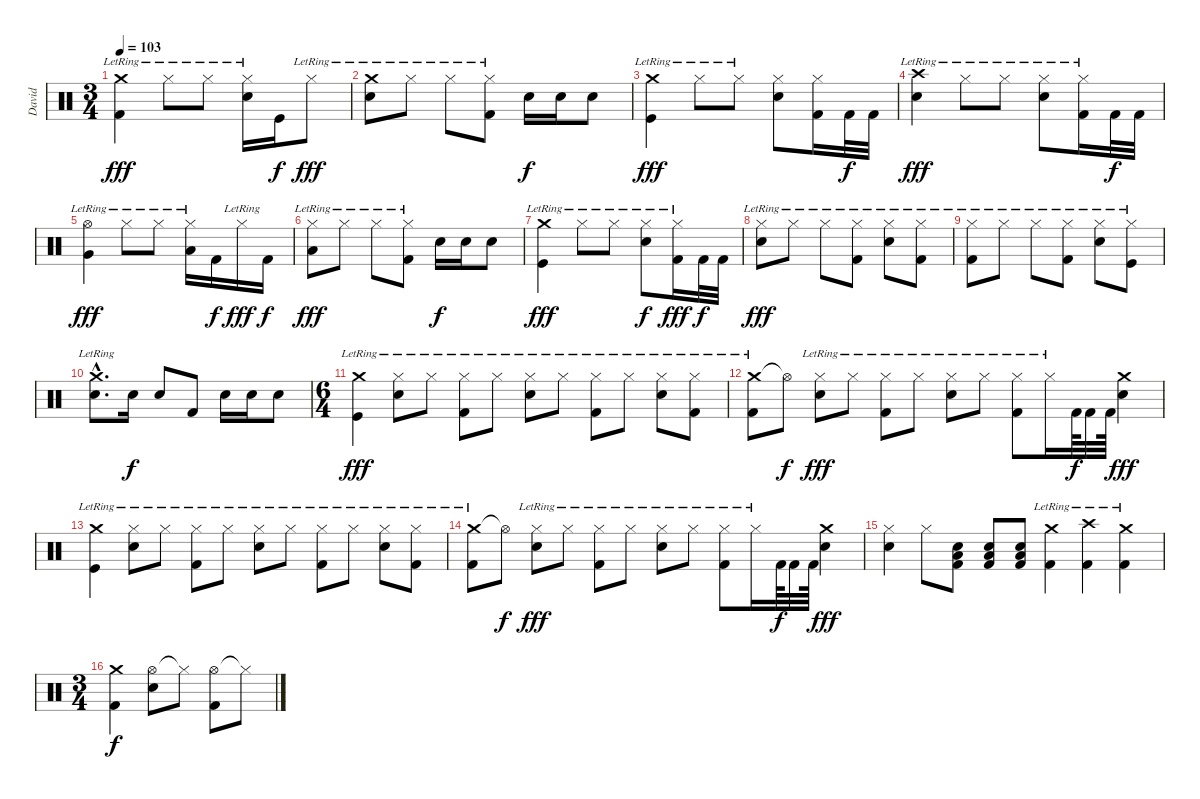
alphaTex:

\track ("David" "David") {instrument percussion}
\staff {score}
\articulation defaults
\ts (3 4)
\tempo 103
\clef neutral
\ks c
("Crash medium (hit)"{lr} "Kick (hit) 2").4{dy fff} "Hi-Hat (closed)"{lr}.8 "Hi-Hat (closed)"{lr}.8 ("Hi-Hat (closed)"{lr} "Snare (hit) 2").16 "Kick (hit)".16{dy f} "Hi-Hat (closed)"{lr}.8{dy fff} |
("Crash medium (hit)"{lr} "Snare (hit) 2").8 "Hi-Hat (closed)"{lr}.8 "Hi-Hat (closed)"{lr}.8 ("Hi-Hat (closed)"{lr} "Kick (hit) 2").8 "Snare (hit) 2".16{dy f} "Snare (hit) 2".16 "Snare (hit) 2".8 |
("Crash medium (hit)"{lr} "Kick (hit)").4{dy fff} "Hi-Hat (closed)"{lr}.8 "Hi-Hat (closed)"{lr}.8 ("Hi-Hat (closed)" "Snare (hit) 2").8 ("Hi-Hat (closed)" "Kick (hit) 2").16 "Kick (hit) 2".32{dy f} "Kick (hit) 2".32 |
("Crash high (hit)"{lr} "Snare (hit) 2").4{dy fff} "Hi-Hat (closed)"{lr}.8 "Hi-Hat (closed)"{lr}.8 ("Hi-Hat (closed)"{lr} "Snare (hit) 2").8 ("Hi-Hat (closed)"{lr} "Kick (hit) 2").16 "Kick (hit) 2".32{dy f} "Kick (hit) 2".32 |
("Hi-Hat (open)"{lr} "Very Low Tom (hit)").4{dy fff} "Hi-Hat (closed)"{lr}.8 "Hi-Hat (closed)"{lr}.8 ("Hi-Hat (closed)"{lr} "Low Tom (hit)").16 "Kick (hit) 2".16{dy f} "Hi-Hat (closed)"{lr}.16{dy fff} "Kick (hit) 2".16{dy f} |
("Hi-Hat (closed)"{lr} "Low Tom (hit)").8{dy fff} "Hi-Hat (closed)"{lr}.8 "Hi-Hat (closed)"{lr}.8 ("Hi-Hat (closed)"{lr} "Kick (hit) 2").8 "Snare (hit) 2".16{dy f} "Snare (hit) 2".16 "Snare (hit) 2".8 |
("Crash medium (hit)"{lr} "Kick (hit)").4{dy fff} "Hi-Hat (closed)"{lr}.8 "Hi-Hat (closed)"{lr}.8 ("Hi-Hat (closed)"{lr} "Snare (hit) 2").8{dy f} ("Hi-Hat (closed)"{lr} "Kick (hit) 2").16{dy fff} "Kick (hit) 2".32{dy f} "Kick (hit) 2".32 |
("Hi-Hat (closed)"{lr} "Snare (hit) 2").8{dy fff} "Hi-Hat (closed)"{lr}.8 "Hi-Hat (closed)"{lr}.8 ("Hi-Hat (closed)"{lr} "Kick (hit) 2").8 ("Hi-Hat (closed)"{lr} "Snare (hit) 2").8 ("Hi-Hat (closed)"{lr} "Kick (hit) 2").8 |
("Hi-Hat (closed)"{lr} "Kick (hit) 2").8 "Hi-Hat (closed)"{lr}.8 "Hi-Hat (closed)"{lr}.8 ("Hi-Hat (closed)"{lr} "Kick (hit) 2").8 ("Hi-Hat (closed)"{lr} "Snare (hit) 2").8 ("Hi-Hat (closed)"{lr} "Kick (hit)").8 |
("Crash medium (hit)"{hac lr} "Snare (hit) 2"{hac}).8{d} "Snare (hit) 2".16{dy f} "Snare (hit) 2".8 "Kick (hit) 2".8 "Snare (hit) 2".16 "Snare (hit) 2".16 "Snare (hit) 2".8 |
\ts (6 4)
("Crash medium (hit)"{lr} "Kick (hit)").4{dy fff} ("Hi-Hat (closed)"{lr} "Snare (hit) 2").8 "Hi-Hat (closed)"{lr}.8 ("Hi-Hat (closed)"{lr} "Kick (hit) 2").8 "Hi-Hat (closed)"{lr}.8 ("Hi-Hat (closed)"{lr} "Snare (hit) 2").8 "Hi-Hat (closed)"{lr}.8 ("Hi-Hat (closed)"{lr} "Kick (hit) 2").8 "Hi-Hat (closed)"{lr}.8 ("Hi-Hat (closed)"{lr} "Snare (hit) 2").8 ("Hi-Hat (closed)"{lr} "Kick (hit) 2").8 |
("Crash medium (hit)"{lr} "Kick (hit) 2").8 "Hi-Hat (open)"{t}.8{dy f} ("Hi-Hat (closed)"{lr} "Snare (hit) 2").8{dy fff} "Hi-Hat (closed)"{lr}.8 ("Hi-Hat (closed)"{lr} "Kick (hit) 2").8 "Hi-Hat (closed)"{lr}.8 ("Hi-Hat (closed)"{lr} "Snare (hit) 2").8 "Hi-Hat (closed)"{lr}.8 ("Hi-Hat (closed)"{lr} "Kick (hit) 2").8 "Hi-Hat (closed)"{lr}.16 "Kick (hit) 2".64{dy f} "Kick (hit) 2".32 "Kick (hit) 2".64 ("Crash medium (hit)" "Snare (hit) 2").4{dy fff} |
("Crash medium (hit)"{lr} "Kick (hit)").4 ("Hi-Hat (closed)"{lr} "Snare (hit) 2").8 "Hi-Hat (closed)"{lr}.8 ("Hi-Hat (closed)"{lr} "Kick (hit) 2").8 "Hi-Hat (closed)"{lr}.8 ("Hi-Hat (closed)"{lr} "Snare (hit) 2").8 "Hi-Hat (closed)"{lr}.8 ("Hi-Hat (closed)"{lr} "Kick (hit) 2").8 "Hi-Hat (closed)"{lr}.8 ("Hi-Hat (closed)"{lr} "Snare (hit) 2").8 ("Hi-Hat (closed)"{lr} "Kick (hit) 2").8 |
("Crash medium (hit)"{lr} "Kick (hit) 2").8 "Hi-Hat (open)"{t}.8{dy f} ("Hi-Hat (closed)"{lr} "Snare (hit) 2").8{dy fff} "Hi-Hat (closed)"{lr}.8 ("Hi-Hat (closed)"{lr} "Kick (hit) 2").8 "Hi-Hat (closed)"{lr}.8 ("Hi-Hat (closed)"{lr} "Snare (hit) 2").8 "Hi-Hat (closed)"{lr}.8 ("Hi-Hat (closed)"{lr} "Kick (hit) 2").8 "Hi-Hat (closed)"{lr}.16 "Kick (hit) 2".64{dy f} "Kick (hit) 2".32 "Kick (hit) 2".64 ("Crash medium (hit)" "Snare (hit) 2").4{dy fff} |
("Hi-Hat (closed)" "Snare (hit) 2").4 "Hi-Hat (closed)".8 ("Low Floor Tom (hit)" "Snare (hit) 2" "Kick (hit) 2").8 ("Low Floor Tom (hit)" "Snare (hit) 2" "Kick (hit) 2").8 ("Low Floor Tom (hit)" "Snare (hit) 2" "Kick (hit) 2").8 ("Crash medium (hit)"{lr} "Kick (hit) 2").4 ("Crash high (hit)"{lr} "Kick (hit) 2").4 ("Crash medium (hit)"{lr} "Kick (hit) 2").4 |
\ts (3 4)
("Crash medium (hit)" "Kick (hit) 2").4{dy f} ("Hi-Hat (open)" "Snare (hit) 2").8 "Hi-Hat (closed)"{t}.8 ("Hi-Hat (open)" "Kick (hit) 2").8 "Hi-Hat (closed)"{t}.8
